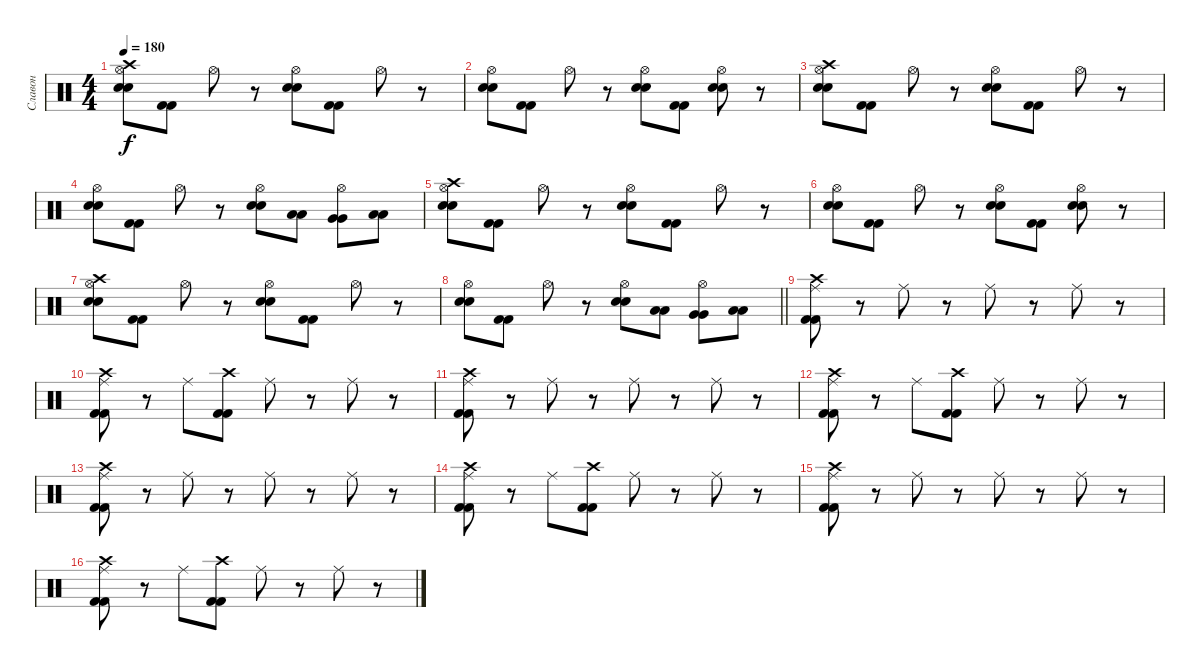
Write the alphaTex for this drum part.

\track ("Славон" "Славон") {instrument percussion}
\staff {score}
\articulation defaults
\ts (4 4)
\section ("" "")
\tempo 180
\clef neutral
\ks c
("Hi-Hat (open)" "Electric Snare (hit)" "Electric Snare (hit)" "Crash high (hit)").8{dy f} ("Kick (hit) 2" "Kick (hit) 2").8 "Hi-Hat (open)".8 r.8 ("Hi-Hat (open)" "Electric Snare (hit)" "Electric Snare (hit)").8 ("Kick (hit) 2" "Kick (hit) 2").8 "Hi-Hat (open)".8 r.8 |
("Hi-Hat (open)" "Electric Snare (hit)" "Electric Snare (hit)").8 ("Kick (hit) 2" "Kick (hit) 2").8 "Hi-Hat (open)".8 r.8 ("Hi-Hat (open)" "Electric Snare (hit)" "Electric Snare (hit)").8 ("Kick (hit) 2" "Kick (hit) 2").8 ("Hi-Hat (open)" "Electric Snare (hit)" "Electric Snare (hit)").8 r.8 |
("Hi-Hat (open)" "Electric Snare (hit)" "Electric Snare (hit)" "Crash high (hit)").8 ("Kick (hit) 2" "Kick (hit) 2").8 "Hi-Hat (open)".8 r.8 ("Hi-Hat (open)" "Electric Snare (hit)" "Electric Snare (hit)").8 ("Kick (hit) 2" "Kick (hit) 2").8 "Hi-Hat (open)".8 r.8 |
("Hi-Hat (open)" "Electric Snare (hit)" "Electric Snare (hit)").8 ("Kick (hit) 2" "Kick (hit) 2").8 "Hi-Hat (open)".8 r.8 ("Hi-Hat (open)" "Electric Snare (hit)" "Electric Snare (hit)").8 ("Low Tom (hit)" "Low Tom (hit)").8 ("Hi-Hat (open)" "Very Low Tom (hit)" "Very Low Tom (hit)").8 ("Low Floor Tom (hit)" "Low Floor Tom (hit)").8 |
("Hi-Hat (open)" "Electric Snare (hit)" "Electric Snare (hit)" "Crash high (hit)").8 ("Kick (hit) 2" "Kick (hit) 2").8 "Hi-Hat (open)".8 r.8 ("Hi-Hat (open)" "Electric Snare (hit)" "Electric Snare (hit)").8 ("Kick (hit) 2" "Kick (hit) 2").8 "Hi-Hat (open)".8 r.8 |
("Hi-Hat (open)" "Electric Snare (hit)" "Electric Snare (hit)").8 ("Kick (hit) 2" "Kick (hit) 2").8 "Hi-Hat (open)".8 r.8 ("Hi-Hat (open)" "Electric Snare (hit)" "Electric Snare (hit)").8 ("Kick (hit) 2" "Kick (hit) 2").8 ("Hi-Hat (open)" "Electric Snare (hit)" "Electric Snare (hit)").8 r.8 |
("Hi-Hat (open)" "Electric Snare (hit)" "Electric Snare (hit)" "Crash high (hit)").8 ("Kick (hit) 2" "Kick (hit) 2").8 "Hi-Hat (open)".8 r.8 ("Hi-Hat (open)" "Electric Snare (hit)" "Electric Snare (hit)").8 ("Kick (hit) 2" "Kick (hit) 2").8 "Hi-Hat (open)".8 r.8 |
\barLineRight lightlight
("Hi-Hat (open)" "Electric Snare (hit)" "Electric Snare (hit)").8 ("Kick (hit) 2" "Kick (hit) 2").8 "Hi-Hat (open)".8 r.8 ("Hi-Hat (open)" "Electric Snare (hit)" "Electric Snare (hit)").8 ("Low Tom (hit)" "Low Tom (hit)").8 ("Hi-Hat (open)" "Very Low Tom (hit)" "Very Low Tom (hit)").8 ("Low Floor Tom (hit)" "Low Floor Tom (hit)").8 |
\section ("" "")
("Ride (middle)" "Kick (hit) 2" "Kick (hit) 2" "Crash high (hit)").8 r.8 "Ride (middle)".8 r.8 "Ride (middle)".8 r.8 "Ride (middle)".8 r.8 |
("Ride (middle)" "Kick (hit) 2" "Kick (hit) 2" "Crash high (hit)").8 r.8 "Ride (middle)".8 ("Kick (hit) 2" "Kick (hit) 2" "Crash high (hit)").8 "Ride (middle)".8 r.8 "Ride (middle)".8 r.8 |
("Ride (middle)" "Kick (hit) 2" "Kick (hit) 2" "Crash high (hit)").8 r.8 "Ride (middle)".8 r.8 "Ride (middle)".8 r.8 "Ride (middle)".8 r.8 |
("Ride (middle)" "Kick (hit) 2" "Kick (hit) 2" "Crash high (hit)").8 r.8 "Ride (middle)".8 ("Kick (hit) 2" "Kick (hit) 2" "Crash high (hit)").8 "Ride (middle)".8 r.8 "Ride (middle)".8 r.8 |
("Ride (middle)" "Kick (hit) 2" "Kick (hit) 2" "Crash high (hit)").8 r.8 "Ride (middle)".8 r.8 "Ride (middle)".8 r.8 "Ride (middle)".8 r.8 |
("Ride (middle)" "Kick (hit) 2" "Kick (hit) 2" "Crash high (hit)").8 r.8 "Ride (middle)".8 ("Kick (hit) 2" "Kick (hit) 2" "Crash high (hit)").8 "Ride (middle)".8 r.8 "Ride (middle)".8 r.8 |
("Ride (middle)" "Kick (hit) 2" "Kick (hit) 2" "Crash high (hit)").8 r.8 "Ride (middle)".8 r.8 "Ride (middle)".8 r.8 "Ride (middle)".8 r.8 |
("Ride (middle)" "Kick (hit) 2" "Kick (hit) 2" "Crash high (hit)").8 r.8 "Ride (middle)".8 ("Kick (hit) 2" "Kick (hit) 2" "Crash high (hit)").8 "Ride (middle)".8 r.8 "Ride (middle)".8 r.8
